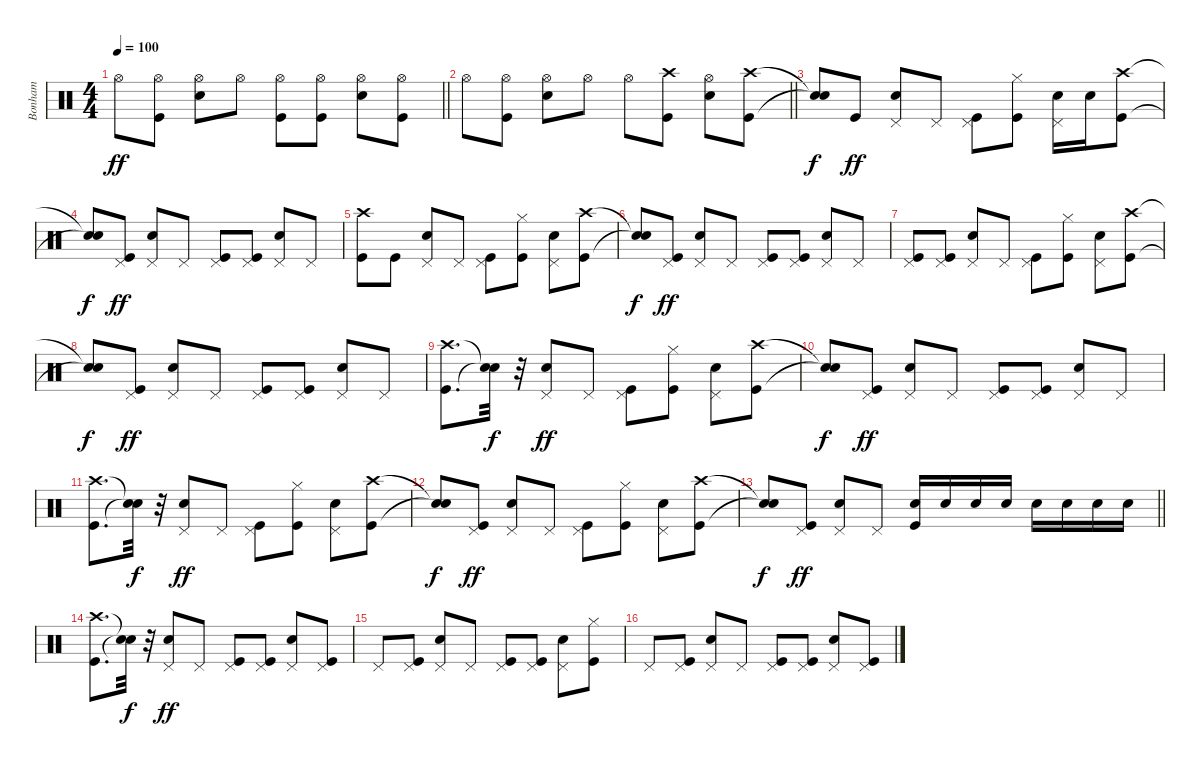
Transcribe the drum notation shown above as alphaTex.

\track ("Bonham" "Bonham") {instrument percussion}
\staff {score}
\articulation defaults
\ts (4 4)
\tempo 100
\clef neutral
\barLineRight lightlight
\ks c "Hi-Hat (open)".8{dy ff}
("Kick (hit)" "Hi-Hat (open)").8 ("Snare (hit) 2" "Hi-Hat (open)").8 "Hi-Hat (open)".8 ("Kick (hit)" "Hi-Hat (open)").8 ("Kick (hit)" "Hi-Hat (open)").8 ("Snare (hit) 2" "Hi-Hat (open)").8 ("Kick (hit)" "Hi-Hat (open)").8 |
\barLineRight lightlight "Hi-Hat (open)".8
("Kick (hit)" "Hi-Hat (open)").8 ("Snare (hit) 2" "Hi-Hat (open)").8 "Hi-Hat (open)".8 "Hi-Hat (open)".8 ("Kick (hit)" "Crash high (hit)").8 ("Snare (hit) 2" "Hi-Hat (open)").8 ("Kick (hit)" "Crash high (hit)").8 |
("Snare (hit)"{t} "Snare (hit)"{t}).8{dy f} "Kick (hit)".8{dy ff} ("Snare (hit) 2" "Pedal Hi-Hat (hit)").8 "Pedal Hi-Hat (hit)".8 ("Kick (hit)" "Pedal Hi-Hat (hit)").8 ("Kick (hit)" "Hi-Hat (closed)").8 ("Snare (hit) 2" "Pedal Hi-Hat (hit)").16 "Snare (hit) 2".16 ("Kick (hit)" "Crash high (hit)").8 |
("Snare (hit)"{t} "Snare (hit)"{t}).8{dy f} ("Kick (hit)" "Pedal Hi-Hat (hit)").8{dy ff} ("Snare (hit) 2" "Pedal Hi-Hat (hit)").8 "Pedal Hi-Hat (hit)".8 ("Kick (hit)" "Pedal Hi-Hat (hit)").8 ("Kick (hit)" "Pedal Hi-Hat (hit)").8 ("Snare (hit) 2" "Pedal Hi-Hat (hit)").8 "Pedal Hi-Hat (hit)".8 |
("Kick (hit)" "Crash high (hit)").8 "Kick (hit)".8 ("Snare (hit) 2" "Pedal Hi-Hat (hit)").8 "Pedal Hi-Hat (hit)".8 ("Kick (hit)" "Pedal Hi-Hat (hit)").8 ("Kick (hit)" "Hi-Hat (closed)").8 ("Snare (hit) 2" "Pedal Hi-Hat (hit)").8 ("Kick (hit)" "Crash high (hit)").8 |
("Snare (hit)"{t} "Snare (hit)"{t}).8{dy f} ("Kick (hit)" "Pedal Hi-Hat (hit)").8{dy ff} ("Snare (hit) 2" "Pedal Hi-Hat (hit)").8 "Pedal Hi-Hat (hit)".8 ("Kick (hit)" "Pedal Hi-Hat (hit)").8 ("Kick (hit)" "Pedal Hi-Hat (hit)").8 ("Snare (hit) 2" "Pedal Hi-Hat (hit)").8 "Pedal Hi-Hat (hit)".8 |
("Kick (hit)" "Pedal Hi-Hat (hit)").8 ("Kick (hit)" "Pedal Hi-Hat (hit)").8 ("Snare (hit) 2" "Pedal Hi-Hat (hit)").8 "Pedal Hi-Hat (hit)".8 ("Kick (hit)" "Pedal Hi-Hat (hit)").8 ("Kick (hit)" "Hi-Hat (closed)").8 ("Snare (hit) 2" "Pedal Hi-Hat (hit)").8 ("Kick (hit)" "Crash high (hit)").8 |
("Snare (hit)"{t} "Snare (hit)"{t}).8{dy f} ("Kick (hit)" "Pedal Hi-Hat (hit)").8{dy ff} ("Snare (hit) 2" "Pedal Hi-Hat (hit)").8 "Pedal Hi-Hat (hit)".8 ("Kick (hit)" "Pedal Hi-Hat (hit)").8 ("Kick (hit)" "Pedal Hi-Hat (hit)").8 ("Snare (hit) 2" "Pedal Hi-Hat (hit)").8 "Pedal Hi-Hat (hit)".8 |
("Kick (hit)" "Crash high (hit)").8{d} ("Snare (hit)"{t} "Snare (hit)"{t}).32{dy f} r.32 ("Snare (hit) 2" "Pedal Hi-Hat (hit)").8{dy ff} "Pedal Hi-Hat (hit)".8 ("Kick (hit)" "Pedal Hi-Hat (hit)").8 ("Kick (hit)" "Hi-Hat (closed)").8 ("Snare (hit) 2" "Pedal Hi-Hat (hit)").8 ("Kick (hit)" "Crash high (hit)").8 |
("Snare (hit)"{t} "Snare (hit)"{t}).8{dy f} ("Kick (hit)" "Pedal Hi-Hat (hit)").8{dy ff} ("Snare (hit) 2" "Pedal Hi-Hat (hit)").8 "Pedal Hi-Hat (hit)".8 ("Kick (hit)" "Pedal Hi-Hat (hit)").8 ("Kick (hit)" "Pedal Hi-Hat (hit)").8 ("Snare (hit) 2" "Pedal Hi-Hat (hit)").8 "Pedal Hi-Hat (hit)".8 |
("Kick (hit)" "Crash high (hit)").8{d} ("Snare (hit)"{t} "Snare (hit)"{t}).32{dy f} r.32 ("Snare (hit) 2" "Pedal Hi-Hat (hit)").8{dy ff} "Pedal Hi-Hat (hit)".8 ("Kick (hit)" "Pedal Hi-Hat (hit)").8 ("Kick (hit)" "Hi-Hat (closed)").8 ("Snare (hit) 2" "Pedal Hi-Hat (hit)").8 ("Kick (hit)" "Crash high (hit)").8 |
("Snare (hit)"{t} "Snare (hit)"{t}).8{dy f} ("Kick (hit)" "Pedal Hi-Hat (hit)").8{dy ff} ("Snare (hit) 2" "Pedal Hi-Hat (hit)").8 "Pedal Hi-Hat (hit)".8 ("Kick (hit)" "Pedal Hi-Hat (hit)").8 ("Kick (hit)" "Hi-Hat (closed)").8 ("Snare (hit) 2" "Pedal Hi-Hat (hit)").8 ("Kick (hit)" "Crash high (hit)").8 |
\barLineRight lightlight
("Snare (hit)"{t} "Snare (hit)"{t}).8{dy f} ("Kick (hit)" "Pedal Hi-Hat (hit)").8{dy ff} ("Snare (hit) 2" "Pedal Hi-Hat (hit)").8 "Pedal Hi-Hat (hit)".8 ("Kick (hit)" "Snare (hit) 2").16 "Snare (hit) 2".16 "Snare (hit) 2".16 "Snare (hit) 2".16 "Snare (hit) 2".16 "Snare (hit) 2".16 "Snare (hit) 2".16 "Snare (hit) 2".16 |
("Kick (hit)" "Crash high (hit)").8{d} ("Snare (hit)"{t} "Snare (hit)"{t}).32{dy f} r.32 ("Snare (hit) 2" "Pedal Hi-Hat (hit)").8{dy ff} "Pedal Hi-Hat (hit)".8 ("Kick (hit)" "Pedal Hi-Hat (hit)").8 ("Kick (hit)" "Pedal Hi-Hat (hit)").8 ("Snare (hit) 2" "Pedal Hi-Hat (hit)").8 ("Kick (hit)" "Pedal Hi-Hat (hit)").8 |
"Pedal Hi-Hat (hit)".8 ("Kick (hit)" "Pedal Hi-Hat (hit)").8 ("Snare (hit) 2" "Pedal Hi-Hat (hit)").8 "Pedal Hi-Hat (hit)".8 ("Kick (hit)" "Pedal Hi-Hat (hit)").8 ("Kick (hit)" "Pedal Hi-Hat (hit)").8 ("Snare (hit) 2" "Pedal Hi-Hat (hit)").8 ("Kick (hit)" "Hi-Hat (closed)").8 |
"Pedal Hi-Hat (hit)".8 ("Kick (hit)" "Pedal Hi-Hat (hit)").8 ("Snare (hit) 2" "Pedal Hi-Hat (hit)").8 "Pedal Hi-Hat (hit)".8 ("Kick (hit)" "Pedal Hi-Hat (hit)").8 ("Kick (hit)" "Pedal Hi-Hat (hit)").8 ("Snare (hit) 2" "Pedal Hi-Hat (hit)").8 ("Kick (hit)" "Pedal Hi-Hat (hit)").8
